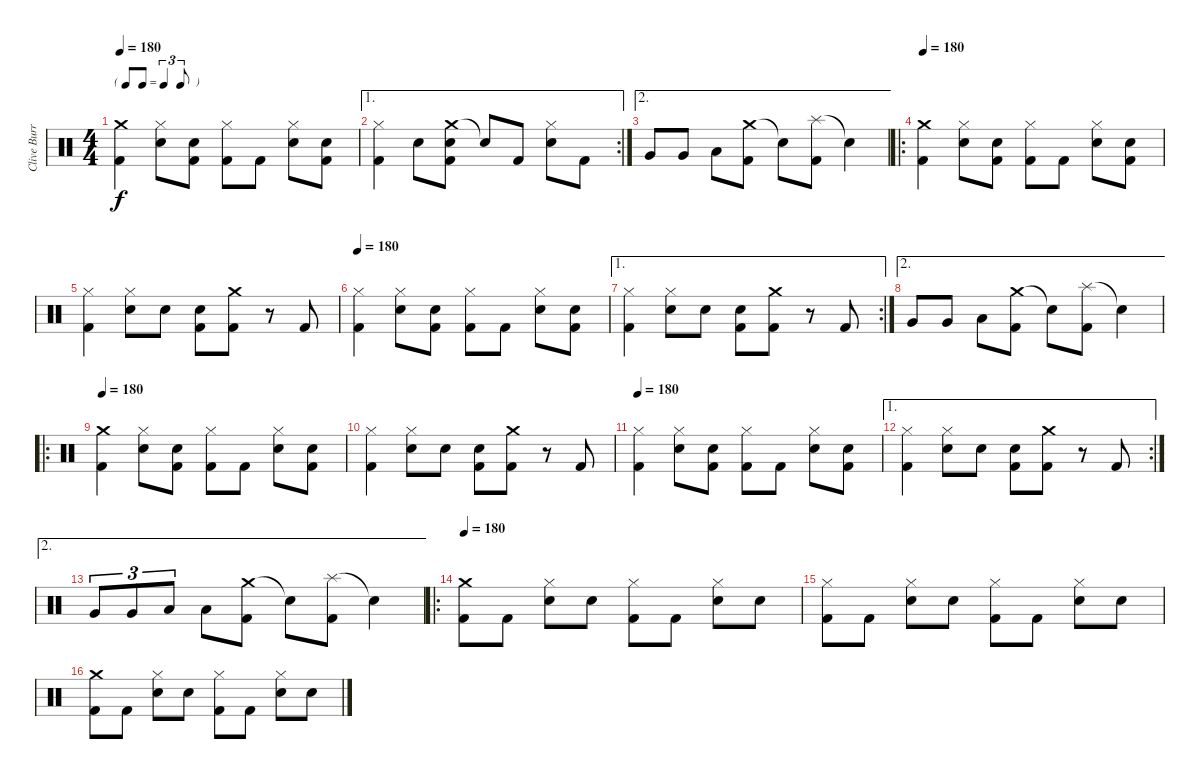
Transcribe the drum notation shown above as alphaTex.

\track ("Clive Burr" "Clive Burr") {instrument percussion}
\staff {score}
\articulation defaults
\ts (4 4)
\tf triplet8th
\tempo 180
\clef neutral
\ks c
("Crash medium (hit)" "Kick (hit) 2").4{dy f} ("Hi-Hat (closed)" "Electric Snare (hit)").8 ("Electric Snare (hit)" "Kick (hit) 2").8 ("Hi-Hat (closed)" "Kick (hit) 2").8 "Kick (hit) 2".8 ("Hi-Hat (closed)" "Electric Snare (hit)").8 ("Electric Snare (hit)" "Kick (hit) 2").8 |
\ae 1
\rc 2
("Hi-Hat (closed)" "Kick (hit) 2").4 "Electric Snare (hit)".8 ("Crash medium (hit)" "Electric Snare (hit)" "Kick (hit) 2").8 "Snare (hit)"{t}.8 "Kick (hit) 2".8 ("Hi-Hat (closed)" "Electric Snare (hit)").8 "Kick (hit) 2".8 |
\ae 2 "Very Low Tom (hit)".8 "Very Low Tom (hit)".8 "Low Floor Tom (hit)".8
("Crash medium (hit)" "Kick (hit) 2").8 "Snare (hit)"{t}.8 ("Splash (hit)" "Kick (hit) 2").8 "Snare (hit)"{t}.4 |
\ro
\tempo 180
("Crash medium (hit)" "Kick (hit) 2").4 ("Hi-Hat (closed)" "Electric Snare (hit)").8 ("Electric Snare (hit)" "Kick (hit) 2").8 ("Hi-Hat (closed)" "Kick (hit) 2").8 "Kick (hit) 2".8 ("Hi-Hat (closed)" "Electric Snare (hit)").8 ("Electric Snare (hit)" "Kick (hit) 2").8 |
("Hi-Hat (closed)" "Kick (hit) 2").4 ("Hi-Hat (closed)" "Electric Snare (hit)").8 "Electric Snare (hit)".8 ("Electric Snare (hit)" "Kick (hit) 2").8 ("Crash medium (hit)" "Kick (hit) 2").8 r.8 "Kick (hit) 2".8 |
\tempo 180
("Hi-Hat (closed)" "Kick (hit) 2").4 ("Hi-Hat (closed)" "Electric Snare (hit)").8 ("Electric Snare (hit)" "Kick (hit) 2").8 ("Hi-Hat (closed)" "Kick (hit) 2").8 "Kick (hit) 2".8 ("Hi-Hat (closed)" "Electric Snare (hit)").8 ("Electric Snare (hit)" "Kick (hit) 2").8 |
\ae 1
\rc 2
("Hi-Hat (closed)" "Kick (hit) 2").4 ("Hi-Hat (closed)" "Electric Snare (hit)").8 "Electric Snare (hit)".8 ("Electric Snare (hit)" "Kick (hit) 2").8 ("Crash medium (hit)" "Kick (hit) 2").8 r.8 "Kick (hit) 2".8 |
\ae 2 "Very Low Tom (hit)".8 "Very Low Tom (hit)".8 "Low Floor Tom (hit)".8
("Crash medium (hit)" "Kick (hit) 2").8 "Snare (hit)"{t}.8 ("Splash (hit)" "Kick (hit) 2").8 "Snare (hit)"{t}.4 |
\ro
\tempo 180
("Crash medium (hit)" "Kick (hit) 2").4 ("Hi-Hat (closed)" "Electric Snare (hit)").8 ("Electric Snare (hit)" "Kick (hit) 2").8 ("Hi-Hat (closed)" "Kick (hit) 2").8 "Kick (hit) 2".8 ("Hi-Hat (closed)" "Electric Snare (hit)").8 ("Electric Snare (hit)" "Kick (hit) 2").8 |
("Hi-Hat (closed)" "Kick (hit) 2").4 ("Hi-Hat (closed)" "Electric Snare (hit)").8 "Electric Snare (hit)".8 ("Electric Snare (hit)" "Kick (hit) 2").8 ("Crash medium (hit)" "Kick (hit) 2").8 r.8 "Kick (hit) 2".8 |
\tempo 180
("Hi-Hat (closed)" "Kick (hit) 2").4 ("Hi-Hat (closed)" "Electric Snare (hit)").8 ("Electric Snare (hit)" "Kick (hit) 2").8 ("Hi-Hat (closed)" "Kick (hit) 2").8 "Kick (hit) 2".8 ("Hi-Hat (closed)" "Electric Snare (hit)").8 ("Electric Snare (hit)" "Kick (hit) 2").8 |
\ae 1
\rc 2
("Hi-Hat (closed)" "Kick (hit) 2").4 ("Hi-Hat (closed)" "Electric Snare (hit)").8 "Electric Snare (hit)".8 ("Electric Snare (hit)" "Kick (hit) 2").8 ("Crash medium (hit)" "Kick (hit) 2").8 r.8 "Kick (hit) 2".8 |
\ae 2 "Very Low Tom (hit)".8{tu (3 2)} "Very Low Tom (hit)".8{tu (3 2)} "Low Floor Tom (hit)".8{tu (3 2)} "Low Floor Tom (hit)".8
("Crash medium (hit)" "Kick (hit) 2").8 "Snare (hit)"{t}.8 ("Splash (hit)" "Kick (hit) 2").8 "Snare (hit)"{t}.4 |
\ro
\tempo 180
("Crash medium (hit)" "Kick (hit) 2").8 "Kick (hit) 2".8 ("Hi-Hat (closed)" "Electric Snare (hit)").8 "Electric Snare (hit)".8 ("Hi-Hat (closed)" "Kick (hit) 2").8 "Kick (hit) 2".8 ("Hi-Hat (closed)" "Electric Snare (hit)").8 "Electric Snare (hit)".8 |
("Hi-Hat (closed)" "Kick (hit) 2").8 "Kick (hit) 2".8 ("Hi-Hat (closed)" "Electric Snare (hit)").8 "Electric Snare (hit)".8 ("Hi-Hat (closed)" "Kick (hit) 2").8 "Kick (hit) 2".8 ("Hi-Hat (closed)" "Electric Snare (hit)").8 "Electric Snare (hit)".8 |
("Crash medium (hit)" "Kick (hit) 2").8 "Kick (hit) 2".8 ("Hi-Hat (closed)" "Electric Snare (hit)").8 "Electric Snare (hit)".8 ("Hi-Hat (closed)" "Kick (hit) 2").8 "Kick (hit) 2".8 ("Hi-Hat (closed)" "Electric Snare (hit)").8 "Electric Snare (hit)".8
